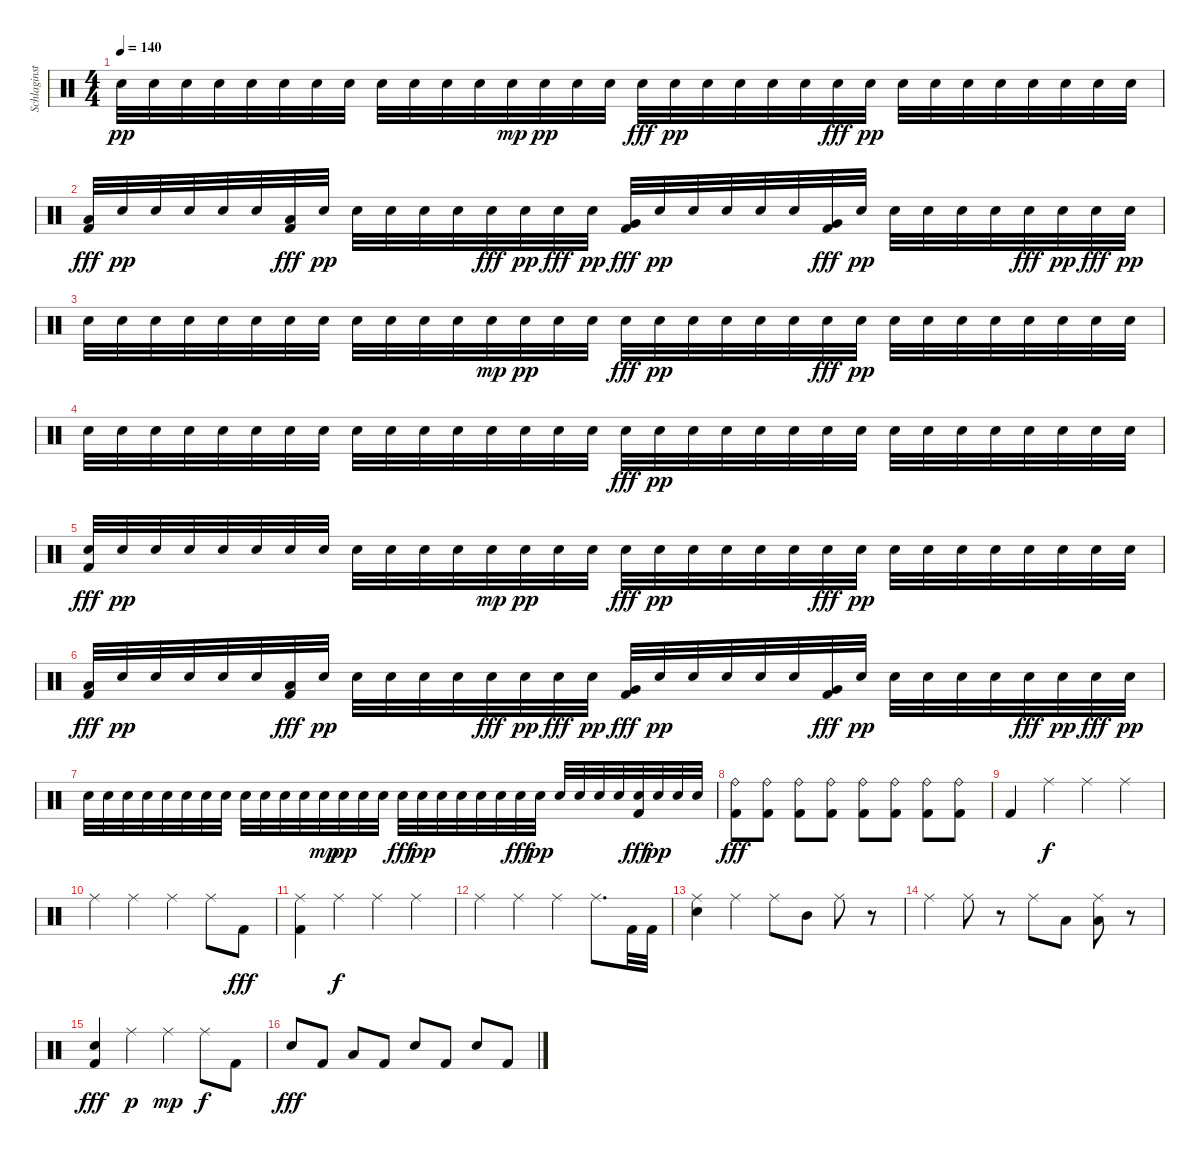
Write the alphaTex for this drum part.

\track ("Schlaginstrumente - Auswahl" "Schlaginst") {instrument percussion}
\staff {score}
\articulation defaults
\ts (4 4)
\tempo 140
\clef neutral
\ks c "Electric Snare (hit)".32{dy pp} "Electric Snare (hit)".32 "Electric Snare (hit)".32 "Electric Snare (hit)".32 "Electric Snare (hit)".32 "Electric Snare (hit)".32 "Electric Snare (hit)".32 "Electric Snare (hit)".32 "Electric Snare (hit)".32 "Electric Snare (hit)".32 "Electric Snare (hit)".32 "Electric Snare (hit)".32 "Electric Snare (hit)".32{dy mp} "Electric Snare (hit)".32{dy pp} "Electric Snare (hit)".32 "Electric Snare (hit)".32 "Electric Snare (hit)".32{dy fff} "Electric Snare (hit)".32{dy pp} "Electric Snare (hit)".32 "Electric Snare (hit)".32 "Electric Snare (hit)".32 "Electric Snare (hit)".32 "Electric Snare (hit)".32{dy fff} "Electric Snare (hit)".32{dy pp} "Electric Snare (hit)".32 "Electric Snare (hit)".32 "Electric Snare (hit)".32 "Electric Snare (hit)".32 "Electric Snare (hit)".32 "Electric Snare (hit)".32 "Electric Snare (hit)".32 "Electric Snare (hit)".32
|
("Low Tom (hit)" "Kick (hit) 2").32{dy fff} "Electric Snare (hit)".32{dy pp} "Electric Snare (hit)".32 "Electric Snare (hit)".32 "Electric Snare (hit)".32 "Electric Snare (hit)".32 ("Low Tom (hit)" "Kick (hit) 2").32{dy fff} "Electric Snare (hit)".32{dy pp} "Electric Snare (hit)".32 "Electric Snare (hit)".32 "Electric Snare (hit)".32 "Electric Snare (hit)".32 "Electric Snare (hit)".32{dy fff} "Electric Snare (hit)".32{dy pp} "Electric Snare (hit)".32{dy fff} "Electric Snare (hit)".32{dy pp} ("Very Low Tom (hit)" "Kick (hit) 2").32{dy fff} "Electric Snare (hit)".32{dy pp} "Electric Snare (hit)".32 "Electric Snare (hit)".32 "Electric Snare (hit)".32 "Electric Snare (hit)".32 ("Very Low Tom (hit)" "Kick (hit) 2").32{dy fff} "Electric Snare (hit)".32{dy pp} "Electric Snare (hit)".32 "Electric Snare (hit)".32 "Electric Snare (hit)".32 "Electric Snare (hit)".32 "Electric Snare (hit)".32{dy fff} "Electric Snare (hit)".32{dy pp} "Electric Snare (hit)".32{dy fff} "Electric Snare (hit)".32{dy pp} |
"Electric Snare (hit)".32 "Electric Snare (hit)".32 "Electric Snare (hit)".32 "Electric Snare (hit)".32 "Electric Snare (hit)".32 "Electric Snare (hit)".32 "Electric Snare (hit)".32 "Electric Snare (hit)".32 "Electric Snare (hit)".32 "Electric Snare (hit)".32 "Electric Snare (hit)".32 "Electric Snare (hit)".32 "Electric Snare (hit)".32{dy mp} "Electric Snare (hit)".32{dy pp} "Electric Snare (hit)".32 "Electric Snare (hit)".32 "Electric Snare (hit)".32{dy fff} "Electric Snare (hit)".32{dy pp} "Electric Snare (hit)".32 "Electric Snare (hit)".32 "Electric Snare (hit)".32 "Electric Snare (hit)".32 "Electric Snare (hit)".32{dy fff} "Electric Snare (hit)".32{dy pp} "Electric Snare (hit)".32 "Electric Snare (hit)".32 "Electric Snare (hit)".32 "Electric Snare (hit)".32 "Electric Snare (hit)".32 "Electric Snare (hit)".32 "Electric Snare (hit)".32 "Electric Snare (hit)".32 |
"Electric Snare (hit)".32 "Electric Snare (hit)".32 "Electric Snare (hit)".32 "Electric Snare (hit)".32 "Electric Snare (hit)".32 "Electric Snare (hit)".32 "Electric Snare (hit)".32 "Electric Snare (hit)".32 "Electric Snare (hit)".32 "Electric Snare (hit)".32 "Electric Snare (hit)".32 "Electric Snare (hit)".32 "Electric Snare (hit)".32 "Electric Snare (hit)".32 "Electric Snare (hit)".32 "Electric Snare (hit)".32 "Electric Snare (hit)".32{dy fff} "Electric Snare (hit)".32{dy pp} "Electric Snare (hit)".32 "Electric Snare (hit)".32 "Electric Snare (hit)".32 "Electric Snare (hit)".32 "Electric Snare (hit)".32 "Electric Snare (hit)".32 "Electric Snare (hit)".32 "Electric Snare (hit)".32 "Electric Snare (hit)".32 "Electric Snare (hit)".32 "Electric Snare (hit)".32 "Electric Snare (hit)".32 "Electric Snare (hit)".32 "Electric Snare (hit)".32 |
("Electric Snare (hit)" "Kick (hit) 2").32{dy fff} "Electric Snare (hit)".32{dy pp} "Electric Snare (hit)".32 "Electric Snare (hit)".32 "Electric Snare (hit)".32 "Electric Snare (hit)".32 "Electric Snare (hit)".32 "Electric Snare (hit)".32 "Electric Snare (hit)".32 "Electric Snare (hit)".32 "Electric Snare (hit)".32 "Electric Snare (hit)".32 "Electric Snare (hit)".32{dy mp} "Electric Snare (hit)".32{dy pp} "Electric Snare (hit)".32 "Electric Snare (hit)".32 "Electric Snare (hit)".32{dy fff} "Electric Snare (hit)".32{dy pp} "Electric Snare (hit)".32 "Electric Snare (hit)".32 "Electric Snare (hit)".32 "Electric Snare (hit)".32 "Electric Snare (hit)".32{dy fff} "Electric Snare (hit)".32{dy pp} "Electric Snare (hit)".32 "Electric Snare (hit)".32 "Electric Snare (hit)".32 "Electric Snare (hit)".32 "Electric Snare (hit)".32 "Electric Snare (hit)".32 "Electric Snare (hit)".32 "Electric Snare (hit)".32 |
("Low Tom (hit)" "Kick (hit) 2").32{dy fff} "Electric Snare (hit)".32{dy pp} "Electric Snare (hit)".32 "Electric Snare (hit)".32 "Electric Snare (hit)".32 "Electric Snare (hit)".32 ("Low Tom (hit)" "Kick (hit) 2").32{dy fff} "Electric Snare (hit)".32{dy pp} "Electric Snare (hit)".32 "Electric Snare (hit)".32 "Electric Snare (hit)".32 "Electric Snare (hit)".32 "Electric Snare (hit)".32{dy fff} "Electric Snare (hit)".32{dy pp} "Electric Snare (hit)".32{dy fff} "Electric Snare (hit)".32{dy pp} ("Very Low Tom (hit)" "Kick (hit) 2").32{dy fff} "Electric Snare (hit)".32{dy pp} "Electric Snare (hit)".32 "Electric Snare (hit)".32 "Electric Snare (hit)".32 "Electric Snare (hit)".32 ("Very Low Tom (hit)" "Kick (hit) 2").32{dy fff} "Electric Snare (hit)".32{dy pp} "Electric Snare (hit)".32 "Electric Snare (hit)".32 "Electric Snare (hit)".32 "Electric Snare (hit)".32 "Electric Snare (hit)".32{dy fff} "Electric Snare (hit)".32{dy pp} "Electric Snare (hit)".32{dy fff} "Electric Snare (hit)".32{dy pp} |
"Electric Snare (hit)".32 "Electric Snare (hit)".32 "Electric Snare (hit)".32 "Electric Snare (hit)".32 "Electric Snare (hit)".32 "Electric Snare (hit)".32 "Electric Snare (hit)".32 "Electric Snare (hit)".32 "Electric Snare (hit)".32 "Electric Snare (hit)".32 "Electric Snare (hit)".32 "Electric Snare (hit)".32 "Electric Snare (hit)".32{dy mp} "Electric Snare (hit)".32{dy pp} "Electric Snare (hit)".32 "Electric Snare (hit)".32 "Electric Snare (hit)".32{dy fff} "Electric Snare (hit)".32{dy pp} "Electric Snare (hit)".32 "Electric Snare (hit)".32 "Electric Snare (hit)".32 "Electric Snare (hit)".32 "Electric Snare (hit)".32{dy fff} "Electric Snare (hit)".32{dy pp} "Electric Snare (hit)".32 "Electric Snare (hit)".32 "Electric Snare (hit)".32 "Electric Snare (hit)".32 ("Electric Snare (hit)" "Kick (hit) 2").32{dy fff} "Electric Snare (hit)".32{dy pp} "Electric Snare (hit)".32 "Electric Snare (hit)".32 |
("Ride (bell)" "Kick (hit) 2").8{dy fff} ("Ride (bell)" "Kick (hit) 2").8 ("Ride (bell)" "Kick (hit) 2").8 ("Ride (bell)" "Kick (hit) 2").8 ("Ride (bell)" "Kick (hit) 2").8 ("Ride (bell)" "Kick (hit) 2").8 ("Ride (bell)" "Kick (hit) 2").8 ("Ride (bell)" "Kick (hit) 2").8 |
"Kick (hit) 2".4 "Ride (middle)".4{dy f} "Ride (middle)".4 "Ride (middle)".4 |
"Ride (middle)".4 "Ride (middle)".4 "Ride (middle)".4 "Ride (middle)".8 "Kick (hit) 2".8{dy fff} |
("Ride (middle)" "Kick (hit) 2").4 "Ride (middle)".4{dy f} "Ride (middle)".4 "Ride (middle)".4 |
"Ride (middle)".4 "Ride (middle)".4 "Ride (middle)".4 "Ride (middle)".8{d} "Kick (hit) 2".32 "Kick (hit) 2".32 |
("Ride (middle)" "Electric Snare (hit)").4 "Ride (middle)".4 "Ride (middle)".8 "Mid Tom (hit)".8 "Ride (middle)".8 r.8 |
"Ride (middle)".4 "Ride (middle)".8 r.8 "Ride (middle)".8 "Low Tom (hit)".8 ("Ride (middle)" "Low Tom (hit)").8 r.8 |
("Electric Snare (hit)" "Kick (hit) 2").4{dy fff} "Ride (middle)".4{dy p} "Ride (middle)".4{dy mp} "Ride (middle)".8{dy f} "Kick (hit) 2".8 |
"Electric Snare (hit)".8{dy fff} "Kick (hit) 2".8 "Low Tom (hit)".8 "Kick (hit) 2".8 "Electric Snare (hit)".8 "Kick (hit) 2".8 "Electric Snare (hit)".8 "Kick (hit) 2".8
